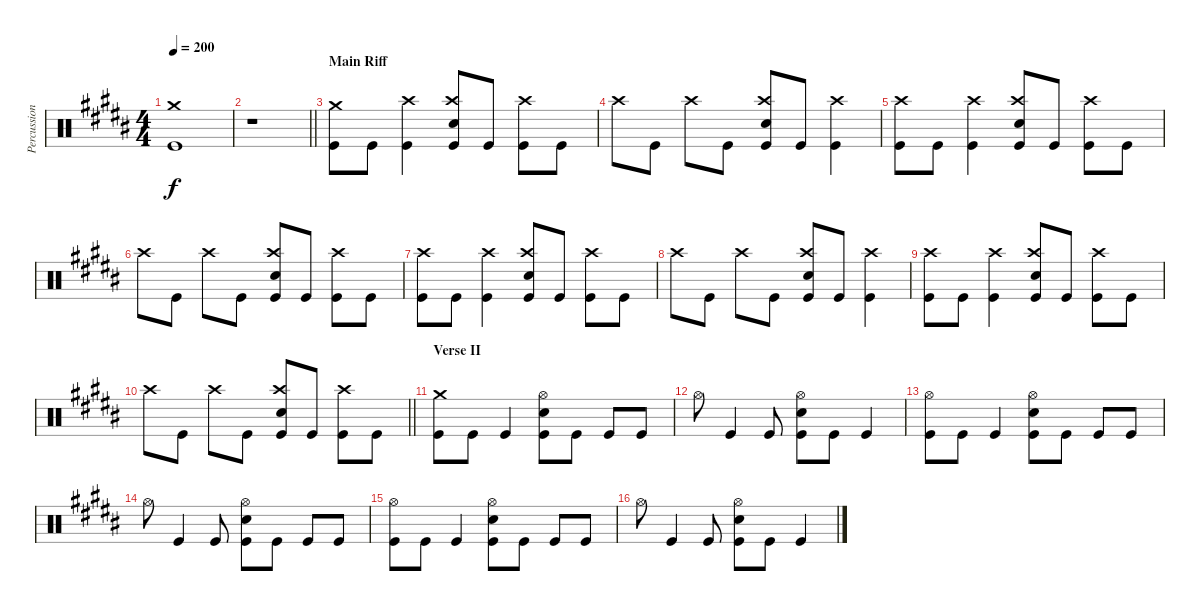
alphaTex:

\track ("Percussion" "Percussion") {instrument percussion}
\staff {score}
\articulation defaults
\ts (4 4)
\tempo 200
\clef neutral
\ks b
("Crash medium (hit)" "Kick (hit)").1{dy f} |
\barLineRight lightlight
r.1 |
\section ("" "Main Riff")
("Crash medium (hit)" "Kick (hit)").8 "Kick (hit)".8 ("Crash high (hit)" "Kick (hit)").4 ("Crash high (hit)" "Electric Snare (hit)" "Kick (hit)").8 "Kick (hit)".8 ("Crash high (hit)" "Kick (hit)").8 "Kick (hit)".8 |
"Crash high (hit)".8 "Kick (hit)".8 "Crash high (hit)".8 "Kick (hit)".8 ("Crash high (hit)" "Electric Snare (hit)" "Kick (hit)").8 "Kick (hit)".8 ("Crash high (hit)" "Kick (hit)").4 |
("Crash high (hit)" "Kick (hit)").8 "Kick (hit)".8 ("Crash high (hit)" "Kick (hit)").4 ("Crash high (hit)" "Electric Snare (hit)" "Kick (hit)").8 "Kick (hit)".8 ("Crash high (hit)" "Kick (hit)").8 "Kick (hit)".8 |
"Crash high (hit)".8 "Kick (hit)".8 "Crash high (hit)".8 "Kick (hit)".8 ("Crash high (hit)" "Electric Snare (hit)" "Kick (hit)").8 "Kick (hit)".8 ("Crash high (hit)" "Kick (hit)").8 "Kick (hit)".8 |
("Crash high (hit)" "Kick (hit)").8 "Kick (hit)".8 ("Crash high (hit)" "Kick (hit)").4 ("Crash high (hit)" "Electric Snare (hit)" "Kick (hit)").8 "Kick (hit)".8 ("Crash high (hit)" "Kick (hit)").8 "Kick (hit)".8 |
"Crash high (hit)".8 "Kick (hit)".8 "Crash high (hit)".8 "Kick (hit)".8 ("Crash high (hit)" "Electric Snare (hit)" "Kick (hit)").8 "Kick (hit)".8 ("Crash high (hit)" "Kick (hit)").4 |
("Crash high (hit)" "Kick (hit)").8 "Kick (hit)".8 ("Crash high (hit)" "Kick (hit)").4 ("Crash high (hit)" "Electric Snare (hit)" "Kick (hit)").8 "Kick (hit)".8 ("Crash high (hit)" "Kick (hit)").8 "Kick (hit)".8 |
\barLineRight lightlight "Crash high (hit)".8 "Kick (hit)".8 "Crash high (hit)".8 "Kick (hit)".8
("Crash high (hit)" "Electric Snare (hit)" "Kick (hit)").8 "Kick (hit)".8 ("Crash high (hit)" "Kick (hit)").8 "Kick (hit)".8 |
\section ("" "Verse II")
("Crash medium (hit)" "Kick (hit)").8 "Kick (hit)".8 "Kick (hit)".4 ("Hi-Hat (open)" "Electric Snare (hit)" "Kick (hit)").8 "Kick (hit)".8 "Kick (hit)".8 "Kick (hit)".8 |
"Hi-Hat (open)".8 "Kick (hit)".4 "Kick (hit)".8 ("Hi-Hat (open)" "Electric Snare (hit)" "Kick (hit)").8 "Kick (hit)".8 "Kick (hit)".4 |
("Hi-Hat (open)" "Kick (hit)").8 "Kick (hit)".8 "Kick (hit)".4 ("Hi-Hat (open)" "Electric Snare (hit)" "Kick (hit)").8 "Kick (hit)".8 "Kick (hit)".8 "Kick (hit)".8 |
"Hi-Hat (open)".8 "Kick (hit)".4 "Kick (hit)".8 ("Hi-Hat (open)" "Electric Snare (hit)" "Kick (hit)").8 "Kick (hit)".8 "Kick (hit)".8 "Kick (hit)".8 |
("Hi-Hat (open)" "Kick (hit)").8 "Kick (hit)".8 "Kick (hit)".4 ("Hi-Hat (open)" "Electric Snare (hit)" "Kick (hit)").8 "Kick (hit)".8 "Kick (hit)".8 "Kick (hit)".8 |
"Hi-Hat (open)".8 "Kick (hit)".4 "Kick (hit)".8 ("Hi-Hat (open)" "Electric Snare (hit)" "Kick (hit)").8 "Kick (hit)".8 "Kick (hit)".4
